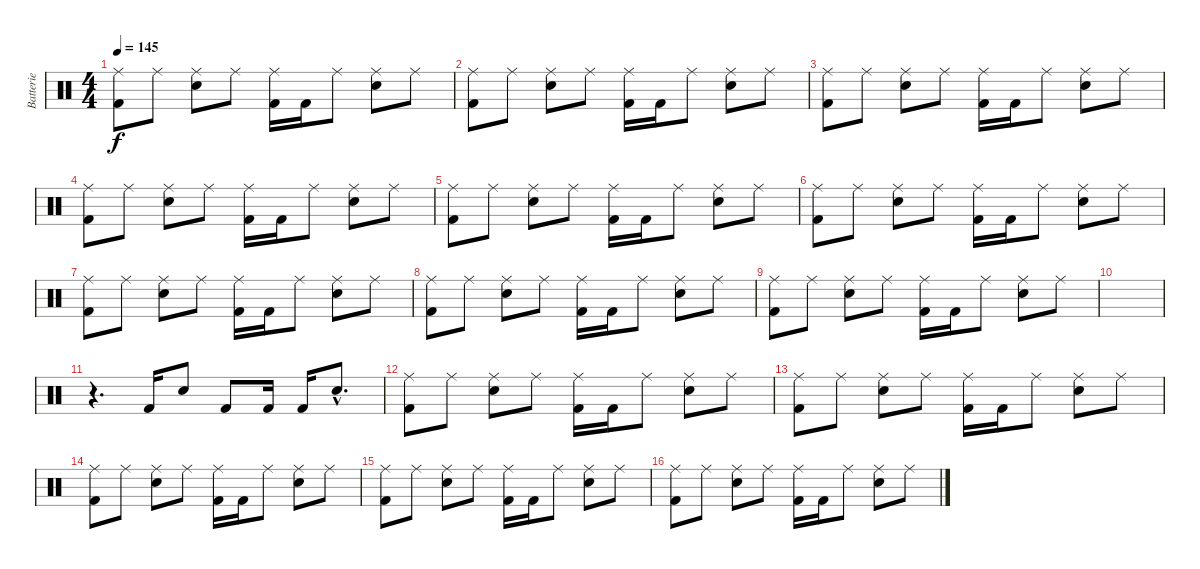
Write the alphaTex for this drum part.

\track ("Batterie" "Batterie") {instrument percussion}
\staff {score}
\articulation defaults
\ts (4 4)
\tempo 145
\clef neutral
\ks c
("Ride (middle)" "Kick (hit) 2").8{dy f} "Ride (middle)".8 ("Ride (middle)" "Snare (hit) 2").8 "Ride (middle)".8 ("Ride (middle)" "Kick (hit) 2").16 "Kick (hit) 2".16 "Ride (middle)".8 ("Ride (middle)" "Snare (hit) 2").8 "Ride (middle)".8 |
\section ("" "")
("Ride (middle)" "Kick (hit) 2").8 "Ride (middle)".8 ("Ride (middle)" "Snare (hit) 2").8 "Ride (middle)".8 ("Ride (middle)" "Kick (hit) 2").16 "Kick (hit) 2".16 "Ride (middle)".8 ("Ride (middle)" "Snare (hit) 2").8 "Ride (middle)".8 |
("Ride (middle)" "Kick (hit) 2").8 "Ride (middle)".8 ("Ride (middle)" "Snare (hit) 2").8 "Ride (middle)".8 ("Ride (middle)" "Kick (hit) 2").16 "Kick (hit) 2".16 "Ride (middle)".8 ("Ride (middle)" "Snare (hit) 2").8 "Ride (middle)".8 |
("Ride (middle)" "Kick (hit) 2").8 "Ride (middle)".8 ("Ride (middle)" "Snare (hit) 2").8 "Ride (middle)".8 ("Ride (middle)" "Kick (hit) 2").16 "Kick (hit) 2".16 "Ride (middle)".8 ("Ride (middle)" "Snare (hit) 2").8 "Ride (middle)".8 |
("Ride (middle)" "Kick (hit) 2").8 "Ride (middle)".8 ("Ride (middle)" "Snare (hit) 2").8 "Ride (middle)".8 ("Ride (middle)" "Kick (hit) 2").16 "Kick (hit) 2".16 "Ride (middle)".8 ("Ride (middle)" "Snare (hit) 2").8 "Ride (middle)".8 |
("Ride (middle)" "Kick (hit) 2").8 "Ride (middle)".8 ("Ride (middle)" "Snare (hit) 2").8 "Ride (middle)".8 ("Ride (middle)" "Kick (hit) 2").16 "Kick (hit) 2".16 "Ride (middle)".8 ("Ride (middle)" "Snare (hit) 2").8 "Ride (middle)".8 |
("Ride (middle)" "Kick (hit) 2").8 "Ride (middle)".8 ("Ride (middle)" "Snare (hit) 2").8 "Ride (middle)".8 ("Ride (middle)" "Kick (hit) 2").16 "Kick (hit) 2".16 "Ride (middle)".8 ("Ride (middle)" "Snare (hit) 2").8 "Ride (middle)".8 |
("Ride (middle)" "Kick (hit) 2").8 "Ride (middle)".8 ("Ride (middle)" "Snare (hit) 2").8 "Ride (middle)".8 ("Ride (middle)" "Kick (hit) 2").16 "Kick (hit) 2".16 "Ride (middle)".8 ("Ride (middle)" "Snare (hit) 2").8 "Ride (middle)".8 |
("Ride (middle)" "Kick (hit) 2").8 "Ride (middle)".8 ("Ride (middle)" "Snare (hit) 2").8 "Ride (middle)".8 ("Ride (middle)" "Kick (hit) 2").16 "Kick (hit) 2".16 "Ride (middle)".8 ("Ride (middle)" "Snare (hit) 2").8 "Ride (middle)".8 |
|
r.4{d} "Kick (hit) 2".16 "Snare (hit) 2".8 "Kick (hit) 2".8 "Kick (hit) 2".16 "Kick (hit) 2".16 "Snare (hit) 2"{hac}.8{d} |
\section ("" "")
("Ride (middle)" "Kick (hit) 2").8 "Ride (middle)".8 ("Ride (middle)" "Snare (hit) 2").8 "Ride (middle)".8 ("Ride (middle)" "Kick (hit) 2").16 "Kick (hit) 2".16 "Ride (middle)".8 ("Ride (middle)" "Snare (hit) 2").8 "Ride (middle)".8 |
("Ride (middle)" "Kick (hit) 2").8 "Ride (middle)".8 ("Ride (middle)" "Snare (hit) 2").8 "Ride (middle)".8 ("Ride (middle)" "Kick (hit) 2").16 "Kick (hit) 2".16 "Ride (middle)".8 ("Ride (middle)" "Snare (hit) 2").8 "Ride (middle)".8 |
("Ride (middle)" "Kick (hit) 2").8 "Ride (middle)".8 ("Ride (middle)" "Snare (hit) 2").8 "Ride (middle)".8 ("Ride (middle)" "Kick (hit) 2").16 "Kick (hit) 2".16 "Ride (middle)".8 ("Ride (middle)" "Snare (hit) 2").8 "Ride (middle)".8 |
("Ride (middle)" "Kick (hit) 2").8 "Ride (middle)".8 ("Ride (middle)" "Snare (hit) 2").8 "Ride (middle)".8 ("Ride (middle)" "Kick (hit) 2").16 "Kick (hit) 2".16 "Ride (middle)".8 ("Ride (middle)" "Snare (hit) 2").8 "Ride (middle)".8 |
("Ride (middle)" "Kick (hit) 2").8 "Ride (middle)".8 ("Ride (middle)" "Snare (hit) 2").8 "Ride (middle)".8 ("Ride (middle)" "Kick (hit) 2").16 "Kick (hit) 2".16 "Ride (middle)".8 ("Ride (middle)" "Snare (hit) 2").8 "Ride (middle)".8
